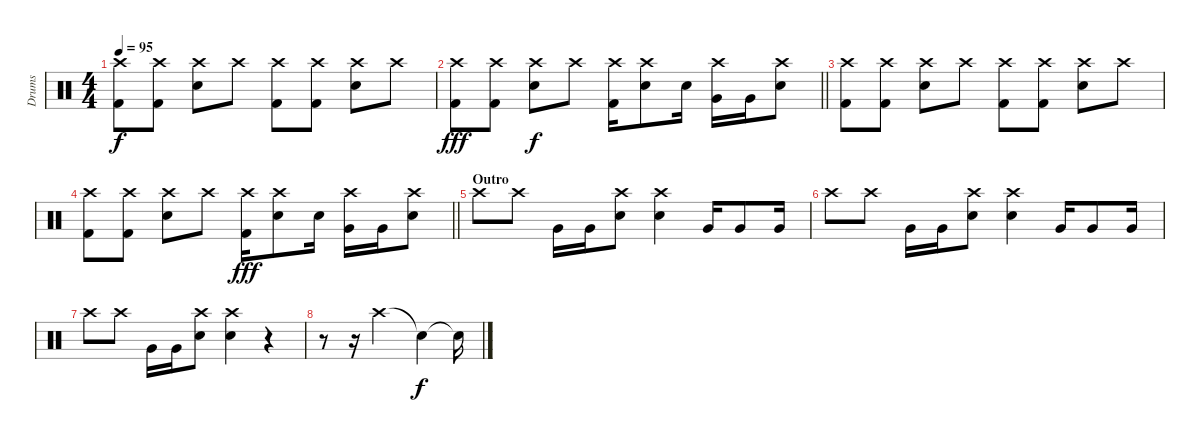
\track ("Drums" "Drums") {instrument percussion}
\staff {score}
\articulation defaults
\ts (4 4)
\tempo 95
\clef neutral
\ks c
("Crash high (hit)" "Kick (hit) 2").8{dy f} ("Crash high (hit)" "Kick (hit) 2").8 ("Crash high (hit)" "Snare (hit) 2").8 "Crash high (hit)".8 ("Crash high (hit)" "Kick (hit) 2").8 ("Crash high (hit)" "Kick (hit) 2").8 ("Crash high (hit)" "Snare (hit) 2").8 "Crash high (hit)".8 |
\barLineRight lightlight
("Crash high (hit)" "Kick (hit) 2").8{dy fff} ("Crash high (hit)" "Kick (hit) 2").8 ("Crash high (hit)" "Snare (hit) 2").8{dy f} "Crash high (hit)".8 ("Kick (hit) 2" "Crash high (hit)").16 ("Snare (hit) 2" "Crash high (hit)").8 "Snare (hit) 2".16 ("Very Low Tom (hit)" "Crash high (hit)").16 "Very Low Tom (hit)".16 ("Snare (hit) 2" "Crash high (hit)").8 |
("Crash high (hit)" "Kick (hit) 2").8 ("Crash high (hit)" "Kick (hit) 2").8 ("Crash high (hit)" "Snare (hit) 2").8 "Crash high (hit)".8 ("Crash high (hit)" "Kick (hit) 2").8 ("Crash high (hit)" "Kick (hit) 2").8 ("Crash high (hit)" "Snare (hit) 2").8 "Crash high (hit)".8 |
\barLineRight lightlight
("Crash high (hit)" "Kick (hit) 2").8 ("Crash high (hit)" "Kick (hit) 2").8 ("Crash high (hit)" "Snare (hit) 2").8 "Crash high (hit)".8 ("Kick (hit) 2" "Crash high (hit)").16{dy fff} ("Snare (hit) 2" "Crash high (hit)").8 "Snare (hit) 2".16 ("Very Low Tom (hit)" "Crash high (hit)").16 "Very Low Tom (hit)".16 ("Snare (hit) 2" "Crash high (hit)").8 |
\section ("" "Outro")
"Crash high (hit)".8 "Crash high (hit)".8 "Very Low Tom (hit)".16 "Very Low Tom (hit)".16 ("Crash high (hit)" "Snare (hit) 2").8 ("Crash high (hit)" "Snare (hit) 2").4 "Very Low Tom (hit)".16 "Very Low Tom (hit)".8 "Very Low Tom (hit)".16 |
"Crash high (hit)".8 "Crash high (hit)".8 "Very Low Tom (hit)".16 "Very Low Tom (hit)".16 ("Crash high (hit)" "Snare (hit) 2").8 ("Crash high (hit)" "Snare (hit) 2").4 "Very Low Tom (hit)".16 "Very Low Tom (hit)".8 "Very Low Tom (hit)".16 |
"Crash high (hit)".8 "Crash high (hit)".8 "Very Low Tom (hit)".16 "Very Low Tom (hit)".16 ("Crash high (hit)" "Snare (hit) 2").8 ("Crash high (hit)" "Snare (hit) 2").4 r.4 |
r.8 r.16 "Crash high (hit)".2 "Snare (hit)"{t}.4{dy f} "Snare (hit)"{t}.16
